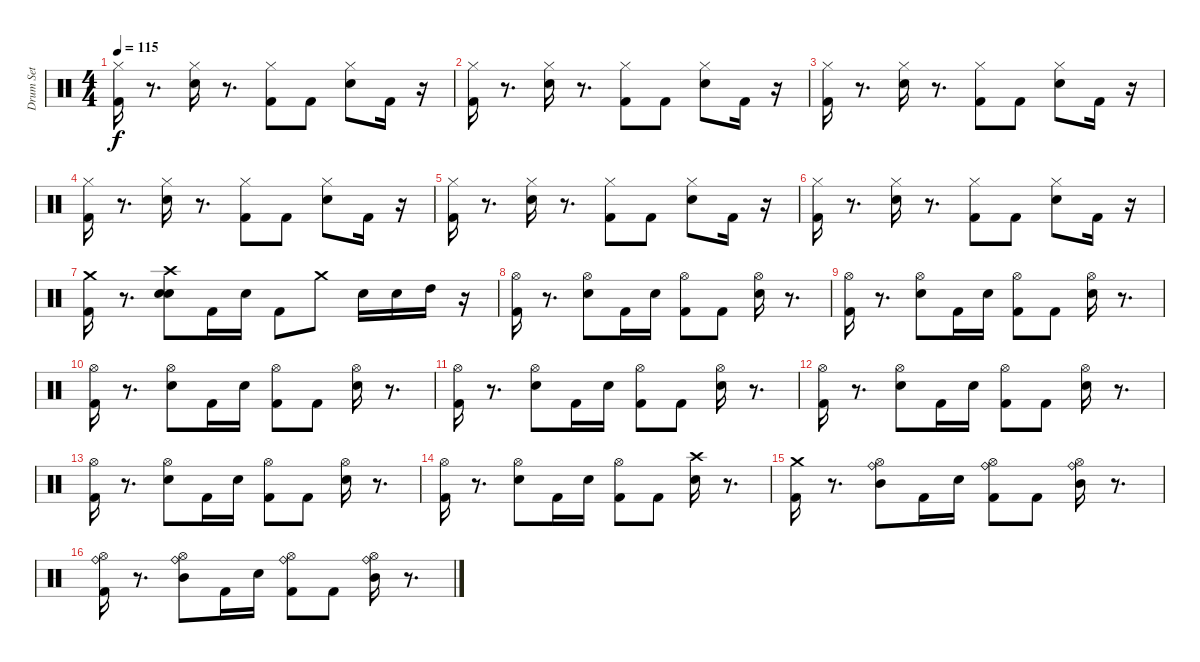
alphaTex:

\track ("Drum Set" "Drum Set") {instrument percussion}
\staff {score}
\articulation defaults
\ts (4 4)
\tempo 115
\clef neutral
\ks c
("Hi-Hat (closed)" "Kick (hit) 2").16{dy f} r.8{d} ("Hi-Hat (closed)" "Electric Snare (hit)").16 r.8{d} ("Hi-Hat (closed)" "Kick (hit) 2").8 "Kick (hit) 2".8 ("Hi-Hat (closed)" "Electric Snare (hit)").8 "Kick (hit) 2".16 r.16 |
("Hi-Hat (closed)" "Kick (hit) 2").16 r.8{d} ("Hi-Hat (closed)" "Electric Snare (hit)").16 r.8{d} ("Hi-Hat (closed)" "Kick (hit) 2").8 "Kick (hit) 2".8 ("Hi-Hat (closed)" "Electric Snare (hit)").8 "Kick (hit) 2".16 r.16 |
("Hi-Hat (closed)" "Kick (hit) 2").16 r.8{d} ("Hi-Hat (closed)" "Electric Snare (hit)").16 r.8{d} ("Hi-Hat (closed)" "Kick (hit) 2").8 "Kick (hit) 2".8 ("Hi-Hat (closed)" "Electric Snare (hit)").8 "Kick (hit) 2".16 r.16 |
("Hi-Hat (closed)" "Kick (hit) 2").16 r.8{d} ("Hi-Hat (closed)" "Electric Snare (hit)").16 r.8{d} ("Hi-Hat (closed)" "Kick (hit) 2").8 "Kick (hit) 2".8 ("Hi-Hat (closed)" "Electric Snare (hit)").8 "Kick (hit) 2".16 r.16 |
("Hi-Hat (closed)" "Kick (hit) 2").16 r.8{d} ("Hi-Hat (closed)" "Electric Snare (hit)").16 r.8{d} ("Hi-Hat (closed)" "Kick (hit) 2").8 "Kick (hit) 2".8 ("Hi-Hat (closed)" "Electric Snare (hit)").8 "Kick (hit) 2".16 r.16 |
("Hi-Hat (closed)" "Kick (hit) 2").16 r.8{d} ("Hi-Hat (closed)" "Electric Snare (hit)").16 r.8{d} ("Hi-Hat (closed)" "Kick (hit) 2").8 "Kick (hit) 2".8 ("Hi-Hat (closed)" "Electric Snare (hit)").8 "Kick (hit) 2".16 r.16 |
("Crash medium (hit)" "Kick (hit) 2").16 r.8{d} ("Crash high (hit)" "Electric Snare (hit)" "Electric Snare (hit)").8 "Kick (hit) 2".16 "Electric Snare (hit)".16 "Kick (hit) 2".8 "Crash medium (hit)".8 "Electric Snare (hit)".16 "Electric Snare (hit)".16 "High Tom (hit)".16 r.16 |
("Hi-Hat (open)" "Kick (hit) 2").16 r.8{d} ("Hi-Hat (open)" "Electric Snare (hit)").8 "Kick (hit) 2".16 "Electric Snare (hit)".16 ("Hi-Hat (open)" "Kick (hit) 2").8 "Kick (hit) 2".8 ("Hi-Hat (open)" "Electric Snare (hit)").16 r.8{d} |
("Hi-Hat (open)" "Kick (hit) 2").16 r.8{d} ("Hi-Hat (open)" "Electric Snare (hit)").8 "Kick (hit) 2".16 "Electric Snare (hit)".16 ("Hi-Hat (open)" "Kick (hit) 2").8 "Kick (hit) 2".8 ("Hi-Hat (open)" "Electric Snare (hit)").16 r.8{d} |
("Hi-Hat (open)" "Kick (hit) 2").16 r.8{d} ("Hi-Hat (open)" "Electric Snare (hit)").8 "Kick (hit) 2".16 "Electric Snare (hit)".16 ("Hi-Hat (open)" "Kick (hit) 2").8 "Kick (hit) 2".8 ("Hi-Hat (open)" "Electric Snare (hit)").16 r.8{d} |
("Hi-Hat (open)" "Kick (hit) 2").16 r.8{d} ("Hi-Hat (open)" "Electric Snare (hit)").8 "Kick (hit) 2".16 "Electric Snare (hit)".16 ("Hi-Hat (open)" "Kick (hit) 2").8 "Kick (hit) 2".8 ("Hi-Hat (open)" "Electric Snare (hit)").16 r.8{d} |
("Hi-Hat (open)" "Kick (hit) 2").16 r.8{d} ("Hi-Hat (open)" "Electric Snare (hit)").8 "Kick (hit) 2".16 "Electric Snare (hit)".16 ("Hi-Hat (open)" "Kick (hit) 2").8 "Kick (hit) 2".8 ("Hi-Hat (open)" "Electric Snare (hit)").16 r.8{d} |
("Hi-Hat (open)" "Kick (hit) 2").16 r.8{d} ("Hi-Hat (open)" "Electric Snare (hit)").8 "Kick (hit) 2".16 "Electric Snare (hit)".16 ("Hi-Hat (open)" "Kick (hit) 2").8 "Kick (hit) 2".8 ("Hi-Hat (open)" "Electric Snare (hit)").16 r.8{d} |
("Hi-Hat (open)" "Kick (hit) 2").16 r.8{d} ("Hi-Hat (open)" "Electric Snare (hit)").8 "Kick (hit) 2".16 "Electric Snare (hit)".16 ("Hi-Hat (open)" "Kick (hit) 2").8 "Kick (hit) 2".8 ("Crash high (hit)" "Electric Snare (hit)").16 r.8{d} |
("Crash medium (hit)" "Kick (hit) 2").16 r.8{d} ("Ride (bell)" "Hi-Hat (open)" "Mid Tom (hit)").8 "Kick (hit) 2".16 "Electric Snare (hit)".16 ("Ride (bell)" "Hi-Hat (open)" "Kick (hit) 2").8 "Kick (hit) 2".8 ("Ride (bell)" "Hi-Hat (open)" "Mid Tom (hit)").16 r.8{d} |
("Ride (bell)" "Hi-Hat (open)" "Kick (hit) 2").16 r.8{d} ("Ride (bell)" "Hi-Hat (open)" "Mid Tom (hit)").8 "Kick (hit) 2".16 "Electric Snare (hit)".16 ("Ride (bell)" "Hi-Hat (open)" "Kick (hit) 2").8 "Kick (hit) 2".8 ("Ride (bell)" "Hi-Hat (open)" "Mid Tom (hit)").16 r.8{d}
